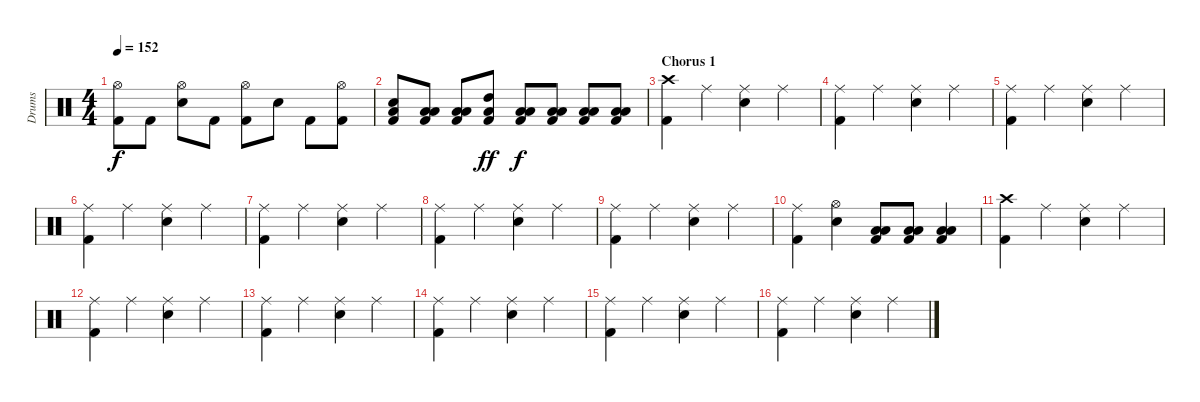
\track ("Drums" "Drums") {instrument percussion}
\staff {score}
\articulation defaults
\ts (4 4)
\tempo 152
\clef neutral
\ks c
("Hi-Hat (open)" "Kick (hit) 2").8{dy f} "Kick (hit) 2".8 ("Hi-Hat (open)" "Electric Snare (hit)").8 "Kick (hit) 2".8 ("Hi-Hat (open)" "Kick (hit) 2").8 "Electric Snare (hit)".8 "Kick (hit) 2".8 ("Hi-Hat (open)" "Kick (hit) 2").8 |
("Low Tom (hit)" "Electric Snare (hit)" "Kick (hit) 2").8 ("Low Tom (hit)" "Low Floor Tom (hit)" "Kick (hit) 2").8 ("Low Tom (hit)" "Low Floor Tom (hit)" "Kick (hit) 2").8 ("High Tom (hit)" "Low Tom (hit)" "Kick (hit) 2").8{dy ff} ("Low Tom (hit)" "Low Floor Tom (hit)" "Kick (hit) 2").8{dy f} ("Low Tom (hit)" "Low Floor Tom (hit)" "Kick (hit) 2").8 ("Low Tom (hit)" "Low Floor Tom (hit)" "Kick (hit) 2").8 ("Low Tom (hit)" "Low Floor Tom (hit)" "Kick (hit) 2").8 |
\section ("" "Chorus 1")
("Crash high (hit)" "Kick (hit) 2").4 "Ride (middle)".4 ("Ride (middle)" "Electric Snare (hit)").4 "Ride (middle)".4 |
("Ride (middle)" "Kick (hit) 2").4 "Ride (middle)".4 ("Ride (middle)" "Electric Snare (hit)").4 "Ride (middle)".4 |
("Ride (middle)" "Kick (hit) 2").4 "Ride (middle)".4 ("Ride (middle)" "Electric Snare (hit)").4 "Ride (middle)".4 |
("Ride (middle)" "Kick (hit) 2").4 "Ride (middle)".4 ("Ride (middle)" "Electric Snare (hit)").4 "Ride (middle)".4 |
("Ride (middle)" "Kick (hit) 2").4 "Ride (middle)".4 ("Ride (middle)" "Electric Snare (hit)").4 "Ride (middle)".4 |
("Ride (middle)" "Kick (hit) 2").4 "Ride (middle)".4 ("Ride (middle)" "Electric Snare (hit)").4 "Ride (middle)".4 |
("Ride (middle)" "Kick (hit) 2").4 "Ride (middle)".4 ("Ride (middle)" "Electric Snare (hit)").4 "Ride (middle)".4 |
("Ride (middle)" "Kick (hit) 2").4 ("Hi-Hat (open)" "Electric Snare (hit)").4 ("Low Floor Tom (hit)" "Low Tom (hit)" "Kick (hit) 2").8 ("Low Floor Tom (hit)" "Low Tom (hit)" "Kick (hit) 2").8 ("Low Floor Tom (hit)" "Low Tom (hit)" "Kick (hit) 2").4 |
("Crash high (hit)" "Kick (hit) 2").4 "Ride (middle)".4 ("Ride (middle)" "Electric Snare (hit)").4 "Ride (middle)".4 |
("Ride (middle)" "Kick (hit) 2").4 "Ride (middle)".4 ("Ride (middle)" "Electric Snare (hit)").4 "Ride (middle)".4 |
("Ride (middle)" "Kick (hit) 2").4 "Ride (middle)".4 ("Ride (middle)" "Electric Snare (hit)").4 "Ride (middle)".4 |
("Ride (middle)" "Kick (hit) 2").4 "Ride (middle)".4 ("Ride (middle)" "Electric Snare (hit)").4 "Ride (middle)".4 |
("Ride (middle)" "Kick (hit) 2").4 "Ride (middle)".4 ("Ride (middle)" "Electric Snare (hit)").4 "Ride (middle)".4 |
("Ride (middle)" "Kick (hit) 2").4 "Ride (middle)".4 ("Ride (middle)" "Electric Snare (hit)").4 "Ride (middle)".4
